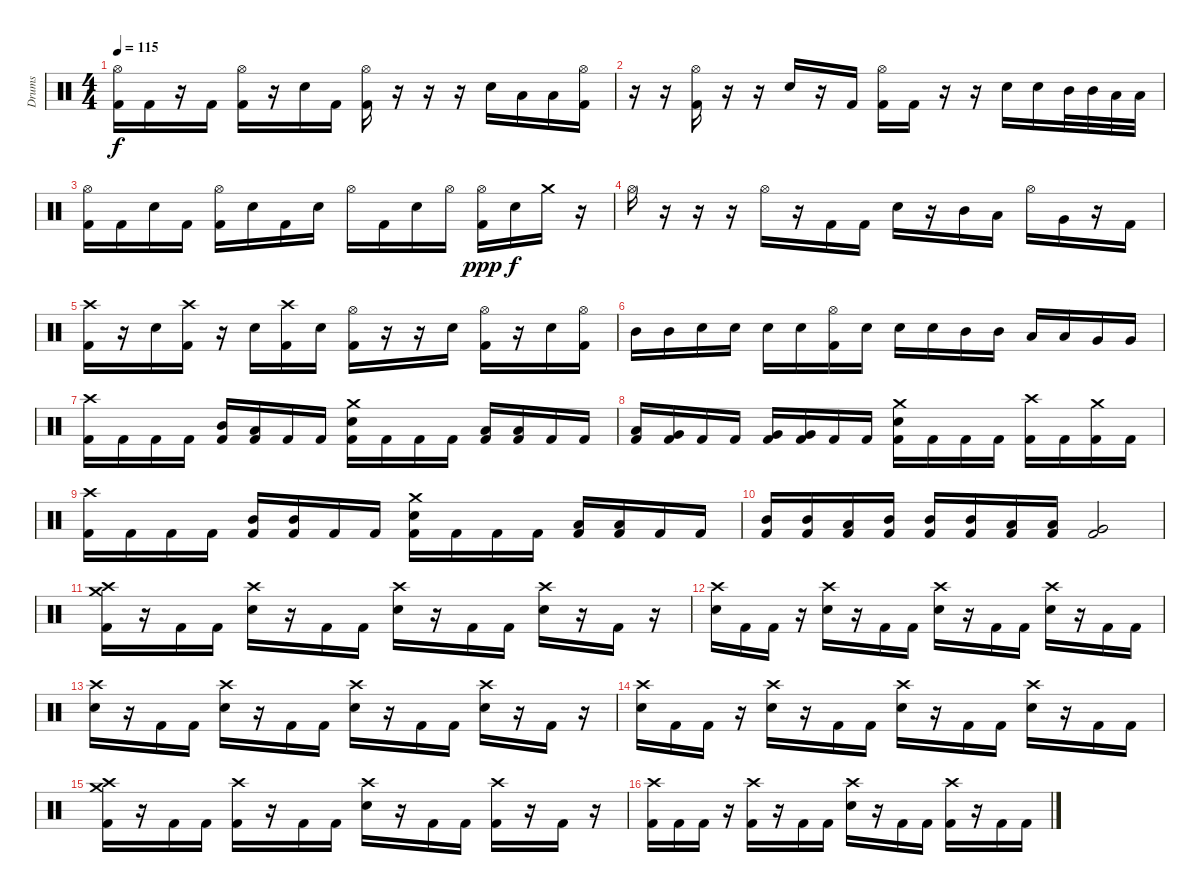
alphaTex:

\track ("Drums" "Drums") {instrument percussion}
\staff {score}
\articulation defaults
\ts (4 4)
\tempo 115
\clef neutral
\ks c
("Hi-Hat (open)" "Kick (hit) 2").16{dy f} "Kick (hit) 2".16 r.16 "Kick (hit) 2".16 ("Hi-Hat (open)" "Kick (hit) 2").16 r.16 "Electric Snare (hit)".16 "Kick (hit) 2".16 ("Hi-Hat (open)" "Kick (hit) 2").16 r.16 r.16 r.16 "Electric Snare (hit)".16 "Low Tom (hit)".16 "Low Tom (hit)".16 ("Hi-Hat (open)" "Kick (hit) 2").16 |
r.16 r.16 ("Hi-Hat (open)" "Kick (hit) 2").16 r.16 r.16 "Electric Snare (hit)".16 r.16 "Kick (hit) 2".16 ("Hi-Hat (open)" "Kick (hit) 2").16 "Kick (hit) 2".16 r.16 r.16 "Electric Snare (hit)".16 "Electric Snare (hit)".16 "Mid Tom (hit)".32 "Mid Tom (hit)".32 "Low Tom (hit)".32 "Low Tom (hit)".32 |
("Hi-Hat (open)" "Kick (hit) 2").16 "Kick (hit) 2".16 "Electric Snare (hit)".16 "Kick (hit) 2".16 ("Hi-Hat (open)" "Kick (hit) 2").16 "Electric Snare (hit)".16 "Kick (hit) 2".16 "Electric Snare (hit)".16 "Hi-Hat (open)".16 "Kick (hit) 2".16 "Electric Snare (hit)".16 "Hi-Hat (open)".16 ("Hi-Hat (open)" "Kick (hit) 2").16{dy ppp} "Electric Snare (hit)".16{dy f} "Crash medium (hit)".16 r.16 |
"Hi-Hat (open)".16 r.16 r.16 r.16 "Hi-Hat (open)".16 r.16 "Kick (hit) 2".16 "Kick (hit) 2".16 "Electric Snare (hit)".16 r.16 "Mid Tom (hit)".16 "Low Tom (hit)".16 "Hi-Hat (open)".16 "Very Low Tom (hit)".16 r.16 "Kick (hit) 2".16 |
("Crash high (hit)" "Kick (hit) 2").16 r.16 "Electric Snare (hit)".16 ("Crash high (hit)" "Kick (hit) 2").16 r.16 "Electric Snare (hit)".16 ("Crash high (hit)" "Kick (hit) 2").16 "Electric Snare (hit)".16 ("Hi-Hat (open)" "Kick (hit) 2").16 r.16 r.16 "Electric Snare (hit)".16 ("Hi-Hat (open)" "Kick (hit) 2").16 r.16 "Electric Snare (hit)".16 ("Hi-Hat (open)" "Kick (hit) 2").16 |
"Mid Tom (hit)".16 "Mid Tom (hit)".16 "Electric Snare (hit)".16 "Electric Snare (hit)".16 "Electric Snare (hit)".16 "Electric Snare (hit)".16 ("Hi-Hat (open)" "Kick (hit) 2").16 "Electric Snare (hit)".16 "Electric Snare (hit)".16 "Electric Snare (hit)".16 "Mid Tom (hit)".16 "Mid Tom (hit)".16 "Low Tom (hit)".16 "Low Tom (hit)".16 "Very Low Tom (hit)".16 "Very Low Tom (hit)".16 |
("Crash high (hit)" "Kick (hit) 2").16 "Kick (hit) 2".16 "Kick (hit) 2".16 "Kick (hit) 2".16 ("Mid Tom (hit)" "Kick (hit) 2").16 ("Low Tom (hit)" "Kick (hit) 2").16 "Kick (hit) 2".16 "Kick (hit) 2".16 ("Crash medium (hit)" "Electric Snare (hit)" "Kick (hit) 2").16 "Kick (hit) 2".16 "Kick (hit) 2".16 "Kick (hit) 2".16 ("Low Tom (hit)" "Kick (hit) 2").16 ("Low Tom (hit)" "Kick (hit) 2").16 "Kick (hit) 2".16 "Kick (hit) 2".16 |
("Low Tom (hit)" "Kick (hit) 2").16 ("Very Low Tom (hit)" "Kick (hit) 2").16 "Kick (hit) 2".16 "Kick (hit) 2".16 ("Very Low Tom (hit)" "Kick (hit) 2").16 ("Very Low Tom (hit)" "Kick (hit) 2").16 "Kick (hit) 2".16 "Kick (hit) 2".16 ("Crash medium (hit)" "Electric Snare (hit)" "Kick (hit) 2").16 "Kick (hit) 2".16 "Kick (hit) 2".16 "Kick (hit) 2".16 ("Crash high (hit)" "Kick (hit) 2").16 "Kick (hit) 2".16 ("Crash medium (hit)" "Kick (hit) 2").16 "Kick (hit) 2".16 |
("Crash high (hit)" "Kick (hit) 2").16 "Kick (hit) 2".16 "Kick (hit) 2".16 "Kick (hit) 2".16 ("Mid Tom (hit)" "Kick (hit) 2").16 ("Mid Tom (hit)" "Kick (hit) 2").16 "Kick (hit) 2".16 "Kick (hit) 2".16 ("Crash medium (hit)" "Electric Snare (hit)" "Kick (hit) 2").16 "Kick (hit) 2".16 "Kick (hit) 2".16 "Kick (hit) 2".16 ("Low Tom (hit)" "Kick (hit) 2").16 ("Low Tom (hit)" "Kick (hit) 2").16 "Kick (hit) 2".16 "Kick (hit) 2".16 |
("Mid Tom (hit)" "Kick (hit) 2").16 ("Mid Tom (hit)" "Kick (hit) 2").16 ("Low Tom (hit)" "Kick (hit) 2").16 ("Mid Tom (hit)" "Kick (hit) 2").16 ("Mid Tom (hit)" "Kick (hit) 2").16 ("Mid Tom (hit)" "Kick (hit) 2").16 ("Low Tom (hit)" "Kick (hit) 2").16 ("Low Tom (hit)" "Kick (hit) 2").16 ("Very Low Tom (hit)" "Kick (hit) 2").2 |
("Crash medium (hit)" "Crash high (hit)" "Kick (hit) 2").16 r.16 "Kick (hit) 2".16 "Kick (hit) 2".16 ("Crash high (hit)" "Electric Snare (hit)").16 r.16 "Kick (hit) 2".16 "Kick (hit) 2".16 ("Crash high (hit)" "Electric Snare (hit)").16 r.16 "Kick (hit) 2".16 "Kick (hit) 2".16 ("Crash high (hit)" "Electric Snare (hit)").16 r.16 "Kick (hit) 2".16 r.16 |
("Crash high (hit)" "Electric Snare (hit)").16 "Kick (hit) 2".16 "Kick (hit) 2".16 r.16 ("Crash high (hit)" "Electric Snare (hit)").16 r.16 "Kick (hit) 2".16 "Kick (hit) 2".16 ("Crash high (hit)" "Electric Snare (hit)").16 r.16 "Kick (hit) 2".16 "Kick (hit) 2".16 ("Crash high (hit)" "Electric Snare (hit)").16 r.16 "Kick (hit) 2".16 "Kick (hit) 2".16 |
("Crash high (hit)" "Electric Snare (hit)").16 r.16 "Kick (hit) 2".16 "Kick (hit) 2".16 ("Crash high (hit)" "Electric Snare (hit)").16 r.16 "Kick (hit) 2".16 "Kick (hit) 2".16 ("Crash high (hit)" "Electric Snare (hit)").16 r.16 "Kick (hit) 2".16 "Kick (hit) 2".16 ("Crash high (hit)" "Electric Snare (hit)").16 r.16 "Kick (hit) 2".16 r.16 |
("Crash high (hit)" "Electric Snare (hit)").16 "Kick (hit) 2".16 "Kick (hit) 2".16 r.16 ("Crash high (hit)" "Electric Snare (hit)").16 r.16 "Kick (hit) 2".16 "Kick (hit) 2".16 ("Crash high (hit)" "Electric Snare (hit)").16 r.16 "Kick (hit) 2".16 "Kick (hit) 2".16 ("Crash high (hit)" "Electric Snare (hit)").16 r.16 "Kick (hit) 2".16 "Kick (hit) 2".16 |
("Crash medium (hit)" "Crash high (hit)" "Kick (hit) 2").16 r.16 "Kick (hit) 2".16 "Kick (hit) 2".16 ("Crash high (hit)" "Kick (hit) 2").16 r.16 "Kick (hit) 2".16 "Kick (hit) 2".16 ("Crash high (hit)" "Electric Snare (hit)").16 r.16 "Kick (hit) 2".16 "Kick (hit) 2".16 ("Crash high (hit)" "Kick (hit) 2").16 r.16 "Kick (hit) 2".16 r.16 |
("Crash high (hit)" "Kick (hit) 2").16 "Kick (hit) 2".16 "Kick (hit) 2".16 r.16 ("Crash high (hit)" "Kick (hit) 2").16 r.16 "Kick (hit) 2".16 "Kick (hit) 2".16 ("Crash high (hit)" "Electric Snare (hit)").16 r.16 "Kick (hit) 2".16 "Kick (hit) 2".16 ("Crash high (hit)" "Kick (hit) 2").16 r.16 "Kick (hit) 2".16 "Kick (hit) 2".16
